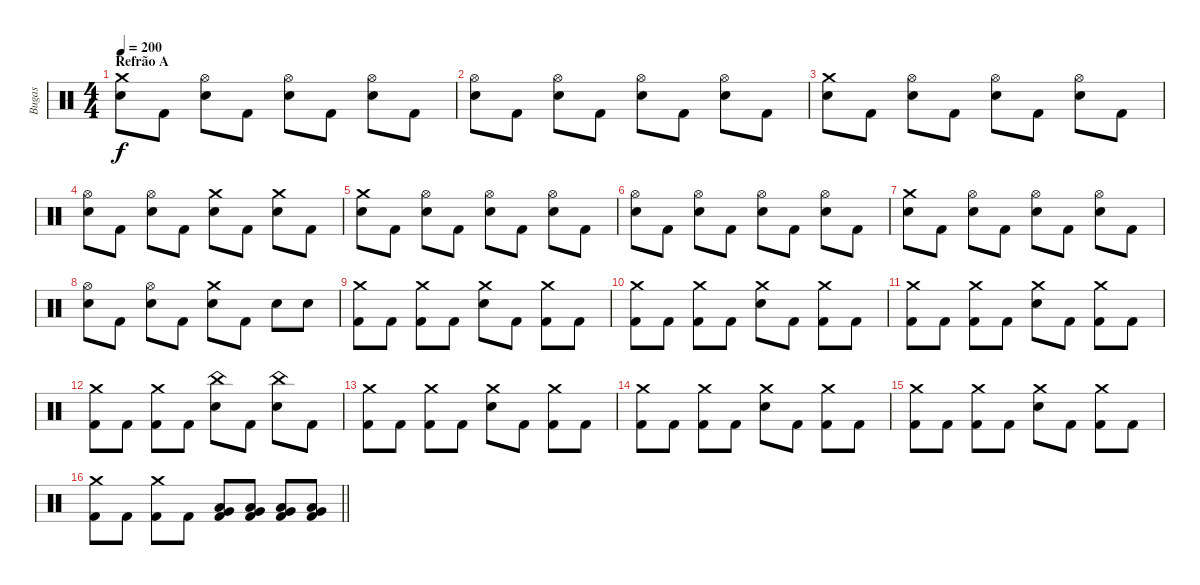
\track ("Bugas" "Bugas") {instrument percussion}
\staff {score}
\articulation defaults
\ts (4 4)
\section ("" "Refrão A")
\tempo 200
\clef neutral
\ks c
("Crash medium (hit)" "Electric Snare (hit)").8{dy f} "Kick (hit) 2".8 ("Hi-Hat (open)" "Electric Snare (hit)").8 "Kick (hit) 2".8 ("Hi-Hat (open)" "Electric Snare (hit)").8 "Kick (hit) 2".8 ("Hi-Hat (open)" "Electric Snare (hit)").8 "Kick (hit) 2".8 |
("Hi-Hat (open)" "Electric Snare (hit)").8 "Kick (hit) 2".8 ("Hi-Hat (open)" "Electric Snare (hit)").8 "Kick (hit) 2".8 ("Hi-Hat (open)" "Electric Snare (hit)").8 "Kick (hit) 2".8 ("Hi-Hat (open)" "Electric Snare (hit)").8 "Kick (hit) 2".8 |
("Crash medium (hit)" "Electric Snare (hit)").8 "Kick (hit) 2".8 ("Hi-Hat (open)" "Electric Snare (hit)").8 "Kick (hit) 2".8 ("Hi-Hat (open)" "Electric Snare (hit)").8 "Kick (hit) 2".8 ("Hi-Hat (open)" "Electric Snare (hit)").8 "Kick (hit) 2".8 |
("Hi-Hat (open)" "Electric Snare (hit)").8 "Kick (hit) 2".8 ("Hi-Hat (open)" "Electric Snare (hit)").8 "Kick (hit) 2".8 ("Crash medium (hit)" "Electric Snare (hit)").8 "Kick (hit) 2".8 ("Crash medium (hit)" "Electric Snare (hit)").8 "Kick (hit) 2".8 |
("Crash medium (hit)" "Electric Snare (hit)").8 "Kick (hit) 2".8 ("Hi-Hat (open)" "Electric Snare (hit)").8 "Kick (hit) 2".8 ("Hi-Hat (open)" "Electric Snare (hit)").8 "Kick (hit) 2".8 ("Hi-Hat (open)" "Electric Snare (hit)").8 "Kick (hit) 2".8 |
("Hi-Hat (open)" "Electric Snare (hit)").8 "Kick (hit) 2".8 ("Hi-Hat (open)" "Electric Snare (hit)").8 "Kick (hit) 2".8 ("Hi-Hat (open)" "Electric Snare (hit)").8 "Kick (hit) 2".8 ("Hi-Hat (open)" "Electric Snare (hit)").8 "Kick (hit) 2".8 |
("Crash medium (hit)" "Electric Snare (hit)").8 "Kick (hit) 2".8 ("Hi-Hat (open)" "Electric Snare (hit)").8 "Kick (hit) 2".8 ("Hi-Hat (open)" "Electric Snare (hit)").8 "Kick (hit) 2".8 ("Hi-Hat (open)" "Electric Snare (hit)").8 "Kick (hit) 2".8 |
("Hi-Hat (open)" "Electric Snare (hit)").8 "Kick (hit) 2".8 ("Hi-Hat (open)" "Electric Snare (hit)").8 "Kick (hit) 2".8 ("Crash medium (hit)" "Electric Snare (hit)").8 "Kick (hit) 2".8 "Electric Snare (hit)".8 "Electric Snare (hit)".8 |
("Crash medium (hit)" "Kick (hit) 2").8 "Kick (hit) 2".8 ("Crash medium (hit)" "Kick (hit) 2").8 "Kick (hit) 2".8 ("Crash medium (hit)" "Electric Snare (hit)").8 "Kick (hit) 2".8 ("Crash medium (hit)" "Kick (hit) 2").8 "Kick (hit) 2".8 |
("Crash medium (hit)" "Kick (hit) 2").8 "Kick (hit) 2".8 ("Crash medium (hit)" "Kick (hit) 2").8 "Kick (hit) 2".8 ("Crash medium (hit)" "Electric Snare (hit)").8 "Kick (hit) 2".8 ("Crash medium (hit)" "Kick (hit) 2").8 "Kick (hit) 2".8 |
("Crash medium (hit)" "Kick (hit) 2").8 "Kick (hit) 2".8 ("Crash medium (hit)" "Kick (hit) 2").8 "Kick (hit) 2".8 ("Crash medium (hit)" "Electric Snare (hit)").8 "Kick (hit) 2".8 ("Crash medium (hit)" "Kick (hit) 2").8 "Kick (hit) 2".8 |
("Crash medium (hit)" "Kick (hit) 2").8 "Kick (hit) 2".8 ("Crash medium (hit)" "Kick (hit) 2").8 "Kick (hit) 2".8 ("China (hit)" "Electric Snare (hit)").8 "Kick (hit) 2".8 ("China (hit)" "Electric Snare (hit)").8 "Kick (hit) 2".8 |
("Crash medium (hit)" "Kick (hit) 2").8 "Kick (hit) 2".8 ("Crash medium (hit)" "Kick (hit) 2").8 "Kick (hit) 2".8 ("Crash medium (hit)" "Electric Snare (hit)").8 "Kick (hit) 2".8 ("Crash medium (hit)" "Kick (hit) 2").8 "Kick (hit) 2".8 |
("Crash medium (hit)" "Kick (hit) 2").8 "Kick (hit) 2".8 ("Crash medium (hit)" "Kick (hit) 2").8 "Kick (hit) 2".8 ("Crash medium (hit)" "Electric Snare (hit)").8 "Kick (hit) 2".8 ("Crash medium (hit)" "Kick (hit) 2").8 "Kick (hit) 2".8 |
("Crash medium (hit)" "Kick (hit) 2").8 "Kick (hit) 2".8 ("Crash medium (hit)" "Kick (hit) 2").8 "Kick (hit) 2".8 ("Crash medium (hit)" "Electric Snare (hit)").8 "Kick (hit) 2".8 ("Crash medium (hit)" "Kick (hit) 2").8 "Kick (hit) 2".8 |
\barLineRight lightlight
("Crash medium (hit)" "Kick (hit) 2").8 "Kick (hit) 2".8 ("Crash medium (hit)" "Kick (hit) 2").8 "Kick (hit) 2".8 ("Very Low Tom (hit)" "Low Tom (hit)" "Kick (hit) 2").8 ("Very Low Tom (hit)" "Low Tom (hit)" "Kick (hit) 2").8 ("Very Low Tom (hit)" "Low Tom (hit)" "Kick (hit) 2").8 ("Very Low Tom (hit)" "Low Tom (hit)" "Kick (hit) 2").8
